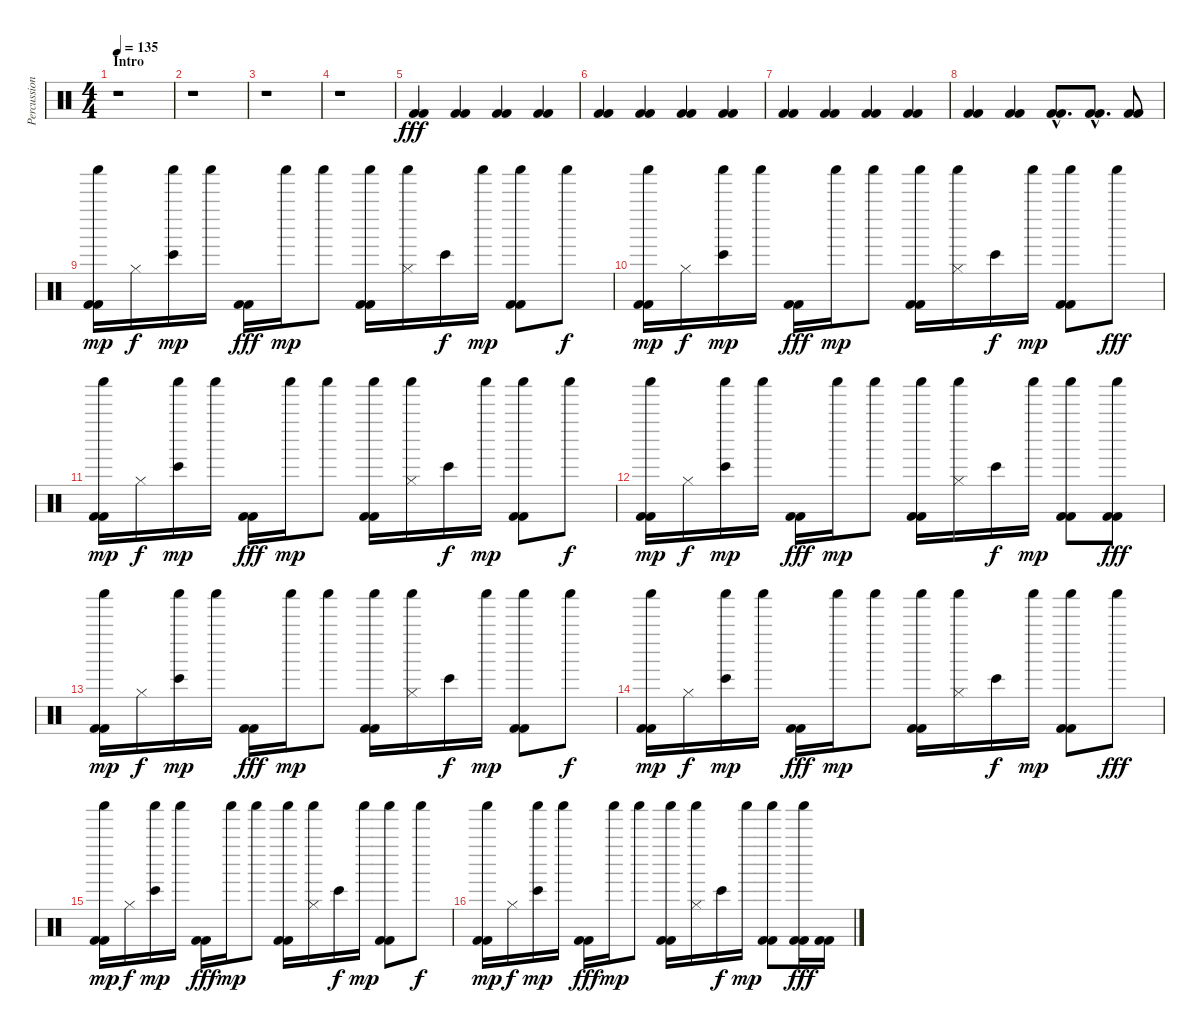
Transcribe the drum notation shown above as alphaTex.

\track ("Percussion" "Percussion") {instrument percussion}
\staff {score}
\articulation defaults
\ts (4 4)
\section ("" "Intro")
\tempo 135
\clef neutral
\ks c
r.1{dy fff} |
r.1 |
r.1 |
r.1 |
("Kick (hit) 2" "Kick (hit) 2").4 ("Kick (hit) 2" "Kick (hit) 2").4 ("Kick (hit) 2" "Kick (hit) 2").4 ("Kick (hit) 2" "Kick (hit) 2").4 |
("Kick (hit) 2" "Kick (hit) 2").4 ("Kick (hit) 2" "Kick (hit) 2").4 ("Kick (hit) 2" "Kick (hit) 2").4 ("Kick (hit) 2" "Kick (hit) 2").4 |
("Kick (hit) 2" "Kick (hit) 2").4 ("Kick (hit) 2" "Kick (hit) 2").4 ("Kick (hit) 2" "Kick (hit) 2").4 ("Kick (hit) 2" "Kick (hit) 2").4 |
("Kick (hit) 2" "Kick (hit) 2").4 ("Kick (hit) 2" "Kick (hit) 2").4 ("Kick (hit) 2"{hac} "Kick (hit) 2"{hac}).8{d} ("Kick (hit) 2"{hac} "Kick (hit) 2"{hac}).8{d} ("Kick (hit) 2" "Kick (hit) 2").8 |
("Kick (hit) 2" "Kick (hit) 2" "Shaker (hit)").16{dy mp} "Hi-Hat (closed)".16{dy f} ("Bongo High (hit)" "Shaker (hit)").16{dy mp} "Shaker (hit)".16 ("Kick (hit) 2" "Kick (hit) 2").16{dy fff} "Shaker (hit)".16{dy mp} "Shaker (hit)".8 ("Kick (hit) 2" "Kick (hit) 2" "Shaker (hit)").16 ("Hi-Hat (closed)" "Shaker (hit)").16 "Bongo High (hit)".16{dy f} "Shaker (hit)".16{dy mp} ("Kick (hit) 2" "Kick (hit) 2" "Shaker (hit)").8 "Shaker (hit)".8{dy f} |
("Kick (hit) 2" "Kick (hit) 2" "Shaker (hit)").16{dy mp} "Hi-Hat (closed)".16{dy f} ("Bongo High (hit)" "Shaker (hit)").16{dy mp} "Shaker (hit)".16 ("Kick (hit) 2" "Kick (hit) 2").16{dy fff} "Shaker (hit)".16{dy mp} "Shaker (hit)".8 ("Kick (hit) 2" "Kick (hit) 2" "Shaker (hit)").16 ("Hi-Hat (closed)" "Shaker (hit)").16 "Bongo High (hit)".16{dy f} "Shaker (hit)".16{dy mp} ("Kick (hit) 2" "Kick (hit) 2" "Shaker (hit)").8 "Shaker (hit)".8{dy fff} |
("Kick (hit) 2" "Kick (hit) 2" "Shaker (hit)").16{dy mp} "Hi-Hat (closed)".16{dy f} ("Bongo High (hit)" "Shaker (hit)").16{dy mp} "Shaker (hit)".16 ("Kick (hit) 2" "Kick (hit) 2").16{dy fff} "Shaker (hit)".16{dy mp} "Shaker (hit)".8 ("Kick (hit) 2" "Kick (hit) 2" "Shaker (hit)").16 ("Hi-Hat (closed)" "Shaker (hit)").16 "Bongo High (hit)".16{dy f} "Shaker (hit)".16{dy mp} ("Kick (hit) 2" "Kick (hit) 2" "Shaker (hit)").8 "Shaker (hit)".8{dy f} |
("Kick (hit) 2" "Kick (hit) 2" "Shaker (hit)").16{dy mp} "Hi-Hat (closed)".16{dy f} ("Bongo High (hit)" "Shaker (hit)").16{dy mp} "Shaker (hit)".16 ("Kick (hit) 2" "Kick (hit) 2").16{dy fff} "Shaker (hit)".16{dy mp} "Shaker (hit)".8 ("Kick (hit) 2" "Kick (hit) 2" "Shaker (hit)").16 ("Hi-Hat (closed)" "Shaker (hit)").16 "Bongo High (hit)".16{dy f} "Shaker (hit)".16{dy mp} ("Kick (hit) 2" "Kick (hit) 2" "Shaker (hit)").8 ("Kick (hit) 2" "Kick (hit) 2" "Shaker (hit)").8{dy fff} |
("Kick (hit) 2" "Kick (hit) 2" "Shaker (hit)").16{dy mp} "Hi-Hat (closed)".16{dy f} ("Bongo High (hit)" "Shaker (hit)").16{dy mp} "Shaker (hit)".16 ("Kick (hit) 2" "Kick (hit) 2").16{dy fff} "Shaker (hit)".16{dy mp} "Shaker (hit)".8 ("Kick (hit) 2" "Kick (hit) 2" "Shaker (hit)").16 ("Hi-Hat (closed)" "Shaker (hit)").16 "Bongo High (hit)".16{dy f} "Shaker (hit)".16{dy mp} ("Kick (hit) 2" "Kick (hit) 2" "Shaker (hit)").8 "Shaker (hit)".8{dy f} |
("Kick (hit) 2" "Kick (hit) 2" "Shaker (hit)").16{dy mp} "Hi-Hat (closed)".16{dy f} ("Bongo High (hit)" "Shaker (hit)").16{dy mp} "Shaker (hit)".16 ("Kick (hit) 2" "Kick (hit) 2").16{dy fff} "Shaker (hit)".16{dy mp} "Shaker (hit)".8 ("Kick (hit) 2" "Kick (hit) 2" "Shaker (hit)").16 ("Hi-Hat (closed)" "Shaker (hit)").16 "Bongo High (hit)".16{dy f} "Shaker (hit)".16{dy mp} ("Kick (hit) 2" "Kick (hit) 2" "Shaker (hit)").8 "Shaker (hit)".8{dy fff} |
("Kick (hit) 2" "Kick (hit) 2" "Shaker (hit)").16{dy mp} "Hi-Hat (closed)".16{dy f} ("Bongo High (hit)" "Shaker (hit)").16{dy mp} "Shaker (hit)".16 ("Kick (hit) 2" "Kick (hit) 2").16{dy fff} "Shaker (hit)".16{dy mp} "Shaker (hit)".8 ("Kick (hit) 2" "Kick (hit) 2" "Shaker (hit)").16 ("Hi-Hat (closed)" "Shaker (hit)").16 "Bongo High (hit)".16{dy f} "Shaker (hit)".16{dy mp} ("Kick (hit) 2" "Kick (hit) 2" "Shaker (hit)").8 "Shaker (hit)".8{dy f} |
("Kick (hit) 2" "Kick (hit) 2" "Shaker (hit)").16{dy mp} "Hi-Hat (closed)".16{dy f} ("Bongo High (hit)" "Shaker (hit)").16{dy mp} "Shaker (hit)".16 ("Kick (hit) 2" "Kick (hit) 2").16{dy fff} "Shaker (hit)".16{dy mp} "Shaker (hit)".8 ("Kick (hit) 2" "Kick (hit) 2" "Shaker (hit)").16 ("Hi-Hat (closed)" "Shaker (hit)").16 "Bongo High (hit)".16{dy f} "Shaker (hit)".16{dy mp} ("Kick (hit) 2" "Kick (hit) 2" "Shaker (hit)").8 ("Kick (hit) 2" "Kick (hit) 2" "Shaker (hit)").16{dy fff} ("Kick (hit) 2" "Kick (hit) 2").16
